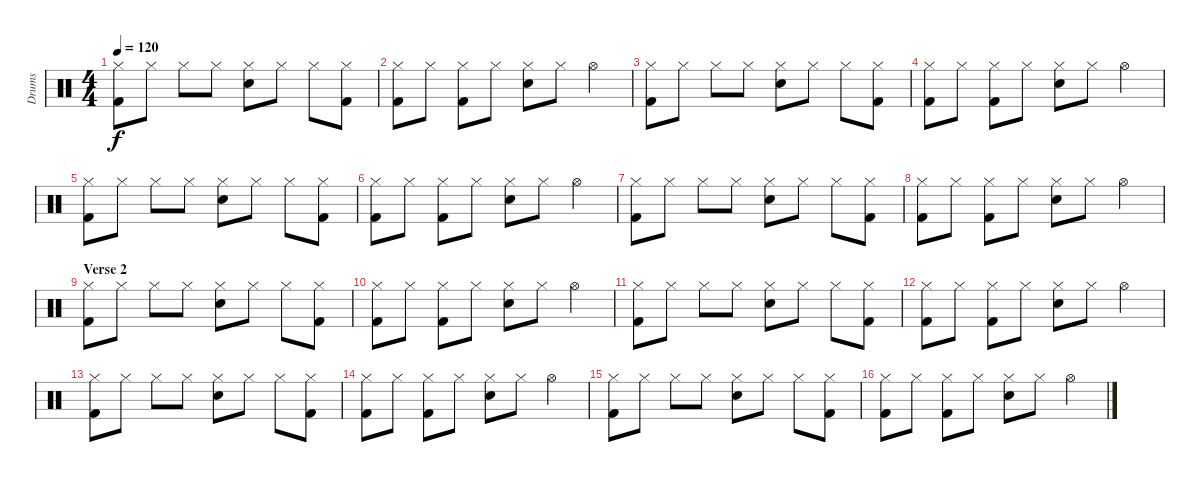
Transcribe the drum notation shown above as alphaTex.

\track ("Drums" "Drums") {instrument percussion}
\staff {score}
\articulation defaults
\ts (4 4)
\tempo 120
\clef neutral
\ks c
("Hi-Hat (closed)" "Kick (hit) 2").8{dy f} "Hi-Hat (closed)".8 "Hi-Hat (closed)".8 "Hi-Hat (closed)".8 ("Hi-Hat (closed)" "Electric Snare (hit)").8 "Hi-Hat (closed)".8 "Hi-Hat (closed)".8 ("Hi-Hat (closed)" "Kick (hit) 2").8 |
("Hi-Hat (closed)" "Kick (hit) 2").8 "Hi-Hat (closed)".8 ("Hi-Hat (closed)" "Kick (hit) 2").8 "Hi-Hat (closed)".8 ("Hi-Hat (closed)" "Electric Snare (hit)").8 "Hi-Hat (closed)".8 "Hi-Hat (open)".4 |
("Hi-Hat (closed)" "Kick (hit) 2").8 "Hi-Hat (closed)".8 "Hi-Hat (closed)".8 "Hi-Hat (closed)".8 ("Hi-Hat (closed)" "Electric Snare (hit)").8 "Hi-Hat (closed)".8 "Hi-Hat (closed)".8 ("Hi-Hat (closed)" "Kick (hit) 2").8 |
("Hi-Hat (closed)" "Kick (hit) 2").8 "Hi-Hat (closed)".8 ("Hi-Hat (closed)" "Kick (hit) 2").8 "Hi-Hat (closed)".8 ("Hi-Hat (closed)" "Electric Snare (hit)").8 "Hi-Hat (closed)".8 "Hi-Hat (open)".4 |
("Hi-Hat (closed)" "Kick (hit) 2").8 "Hi-Hat (closed)".8 "Hi-Hat (closed)".8 "Hi-Hat (closed)".8 ("Hi-Hat (closed)" "Electric Snare (hit)").8 "Hi-Hat (closed)".8 "Hi-Hat (closed)".8 ("Hi-Hat (closed)" "Kick (hit) 2").8 |
("Hi-Hat (closed)" "Kick (hit) 2").8 "Hi-Hat (closed)".8 ("Hi-Hat (closed)" "Kick (hit) 2").8 "Hi-Hat (closed)".8 ("Hi-Hat (closed)" "Electric Snare (hit)").8 "Hi-Hat (closed)".8 "Hi-Hat (open)".4 |
("Hi-Hat (closed)" "Kick (hit) 2").8 "Hi-Hat (closed)".8 "Hi-Hat (closed)".8 "Hi-Hat (closed)".8 ("Hi-Hat (closed)" "Electric Snare (hit)").8 "Hi-Hat (closed)".8 "Hi-Hat (closed)".8 ("Hi-Hat (closed)" "Kick (hit) 2").8 |
("Hi-Hat (closed)" "Kick (hit) 2").8 "Hi-Hat (closed)".8 ("Hi-Hat (closed)" "Kick (hit) 2").8 "Hi-Hat (closed)".8 ("Hi-Hat (closed)" "Electric Snare (hit)").8 "Hi-Hat (closed)".8 "Hi-Hat (open)".4 |
\section ("" "Verse 2")
("Hi-Hat (closed)" "Kick (hit) 2").8 "Hi-Hat (closed)".8 "Hi-Hat (closed)".8 "Hi-Hat (closed)".8 ("Hi-Hat (closed)" "Electric Snare (hit)").8 "Hi-Hat (closed)".8 "Hi-Hat (closed)".8 ("Hi-Hat (closed)" "Kick (hit) 2").8 |
("Hi-Hat (closed)" "Kick (hit) 2").8 "Hi-Hat (closed)".8 ("Hi-Hat (closed)" "Kick (hit) 2").8 "Hi-Hat (closed)".8 ("Hi-Hat (closed)" "Electric Snare (hit)").8 "Hi-Hat (closed)".8 "Hi-Hat (open)".4 |
("Hi-Hat (closed)" "Kick (hit) 2").8 "Hi-Hat (closed)".8 "Hi-Hat (closed)".8 "Hi-Hat (closed)".8 ("Hi-Hat (closed)" "Electric Snare (hit)").8 "Hi-Hat (closed)".8 "Hi-Hat (closed)".8 ("Hi-Hat (closed)" "Kick (hit) 2").8 |
("Hi-Hat (closed)" "Kick (hit) 2").8 "Hi-Hat (closed)".8 ("Hi-Hat (closed)" "Kick (hit) 2").8 "Hi-Hat (closed)".8 ("Hi-Hat (closed)" "Electric Snare (hit)").8 "Hi-Hat (closed)".8 "Hi-Hat (open)".4 |
("Hi-Hat (closed)" "Kick (hit) 2").8 "Hi-Hat (closed)".8 "Hi-Hat (closed)".8 "Hi-Hat (closed)".8 ("Hi-Hat (closed)" "Electric Snare (hit)").8 "Hi-Hat (closed)".8 "Hi-Hat (closed)".8 ("Hi-Hat (closed)" "Kick (hit) 2").8 |
("Hi-Hat (closed)" "Kick (hit) 2").8 "Hi-Hat (closed)".8 ("Hi-Hat (closed)" "Kick (hit) 2").8 "Hi-Hat (closed)".8 ("Hi-Hat (closed)" "Electric Snare (hit)").8 "Hi-Hat (closed)".8 "Hi-Hat (open)".4 |
("Hi-Hat (closed)" "Kick (hit) 2").8 "Hi-Hat (closed)".8 "Hi-Hat (closed)".8 "Hi-Hat (closed)".8 ("Hi-Hat (closed)" "Electric Snare (hit)").8 "Hi-Hat (closed)".8 "Hi-Hat (closed)".8 ("Hi-Hat (closed)" "Kick (hit) 2").8 |
("Hi-Hat (closed)" "Kick (hit) 2").8 "Hi-Hat (closed)".8 ("Hi-Hat (closed)" "Kick (hit) 2").8 "Hi-Hat (closed)".8 ("Hi-Hat (closed)" "Electric Snare (hit)").8 "Hi-Hat (closed)".8 "Hi-Hat (open)".4
